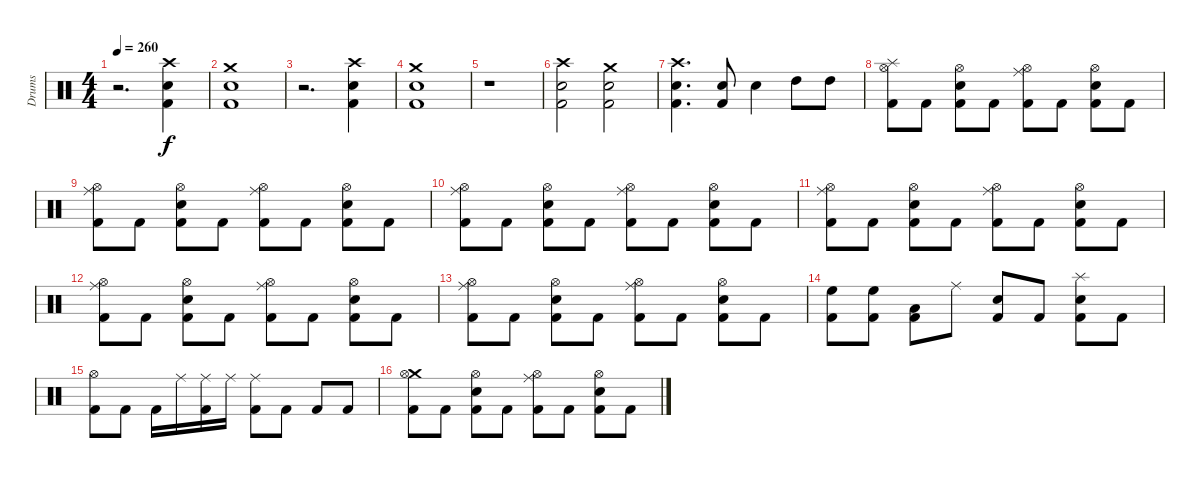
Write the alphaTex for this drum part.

\track ("Drums" "Drums") {instrument percussion}
\staff {score}
\articulation defaults
\ts (4 4)
\tempo 260
\clef neutral
\ks c
r.2{d dy f} ("Crash high (hit)" "Electric Snare (hit)" "Kick (hit) 2").4 |
("Crash medium (hit)" "Electric Snare (hit)" "Kick (hit) 2").1 |
r.2{d} ("Crash high (hit)" "Electric Snare (hit)" "Kick (hit) 2").4 |
("Crash medium (hit)" "Electric Snare (hit)" "Kick (hit) 2").1 |
r.1 |
("Crash high (hit)" "Electric Snare (hit)" "Kick (hit) 2").2 ("Crash medium (hit)" "Electric Snare (hit)" "Kick (hit) 2").2 |
("Crash high (hit)" "Electric Snare (hit)" "Kick (hit) 2").4{d} ("Electric Snare (hit)" "Kick (hit) 2").8 "Electric Snare (hit)".4 "High Tom (hit)".8 "High Tom (hit)".8 |
("Splash (hit)" "Hi-Hat (open)" "Kick (hit) 2").8 "Kick (hit) 2".8 ("Hi-Hat (open)" "Electric Snare (hit)" "Kick (hit) 2").8 "Kick (hit) 2".8 ("Ride (middle)" "Hi-Hat (open)" "Kick (hit) 2").8 "Kick (hit) 2".8 ("Hi-Hat (open)" "Electric Snare (hit)" "Kick (hit) 2").8 "Kick (hit) 2".8 |
("Ride (middle)" "Hi-Hat (open)" "Kick (hit) 2").8 "Kick (hit) 2".8 ("Hi-Hat (open)" "Electric Snare (hit)" "Kick (hit) 2").8 "Kick (hit) 2".8 ("Ride (middle)" "Hi-Hat (open)" "Kick (hit) 2").8 "Kick (hit) 2".8 ("Hi-Hat (open)" "Electric Snare (hit)" "Kick (hit) 2").8 "Kick (hit) 2".8 |
("Ride (middle)" "Hi-Hat (open)" "Kick (hit) 2").8 "Kick (hit) 2".8 ("Hi-Hat (open)" "Electric Snare (hit)" "Kick (hit) 2").8 "Kick (hit) 2".8 ("Ride (middle)" "Hi-Hat (open)" "Kick (hit) 2").8 "Kick (hit) 2".8 ("Hi-Hat (open)" "Electric Snare (hit)" "Kick (hit) 2").8 "Kick (hit) 2".8 |
("Ride (middle)" "Hi-Hat (open)" "Kick (hit) 2").8 "Kick (hit) 2".8 ("Hi-Hat (open)" "Electric Snare (hit)" "Kick (hit) 2").8 "Kick (hit) 2".8 ("Ride (middle)" "Hi-Hat (open)" "Kick (hit) 2").8 "Kick (hit) 2".8 ("Hi-Hat (open)" "Electric Snare (hit)" "Kick (hit) 2").8 "Kick (hit) 2".8 |
("Ride (middle)" "Hi-Hat (open)" "Kick (hit) 2").8 "Kick (hit) 2".8 ("Hi-Hat (open)" "Electric Snare (hit)" "Kick (hit) 2").8 "Kick (hit) 2".8 ("Ride (middle)" "Hi-Hat (open)" "Kick (hit) 2").8 "Kick (hit) 2".8 ("Hi-Hat (open)" "Electric Snare (hit)" "Kick (hit) 2").8 "Kick (hit) 2".8 |
("Ride (middle)" "Hi-Hat (open)" "Kick (hit) 2").8 "Kick (hit) 2".8 ("Hi-Hat (open)" "Electric Snare (hit)" "Kick (hit) 2").8 "Kick (hit) 2".8 ("Ride (middle)" "Hi-Hat (open)" "Kick (hit) 2").8 "Kick (hit) 2".8 ("Hi-Hat (open)" "Electric Snare (hit)" "Kick (hit) 2").8 "Kick (hit) 2".8 |
("High Floor Tom (hit)" "Kick (hit) 2").8 ("High Floor Tom (hit)" "Kick (hit) 2").8 ("Low Tom (hit)" "Kick (hit) 2").8 "Ride (middle)".8 ("Electric Snare (hit)" "Kick (hit) 2").8 "Kick (hit) 2".8 ("Splash (hit)" "Electric Snare (hit)" "Kick (hit) 2").8 "Kick (hit) 2".8 |
("Hi-Hat (open)" "Kick (hit) 2").8 "Kick (hit) 2".8 "Kick (hit) 2".16 "Ride (middle)".16 ("Ride (middle)" "Kick (hit) 2").16 "Ride (middle)".16 ("Ride (middle)" "Kick (hit) 2").8 "Kick (hit) 2".8 "Kick (hit) 2".8 "Kick (hit) 2".8 |
("Crash medium (hit)" "Hi-Hat (open)" "Kick (hit) 2").8 "Kick (hit) 2".8 ("Hi-Hat (open)" "Electric Snare (hit)" "Kick (hit) 2").8 "Kick (hit) 2".8 ("Ride (middle)" "Hi-Hat (open)" "Kick (hit) 2").8 "Kick (hit) 2".8 ("Hi-Hat (open)" "Electric Snare (hit)" "Kick (hit) 2").8 "Kick (hit) 2".8
